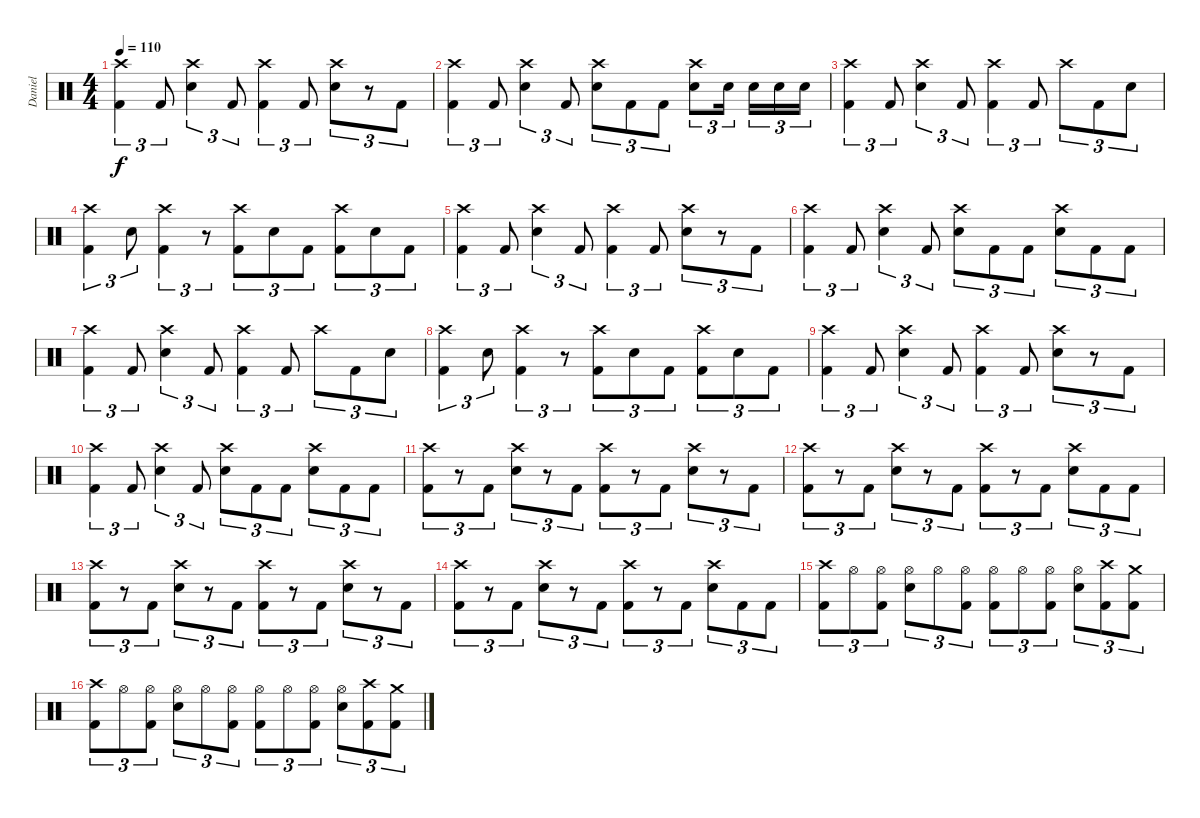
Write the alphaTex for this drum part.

\track ("Daniel" "Daniel") {instrument percussion}
\staff {score}
\articulation defaults
\ts (4 4)
\tempo 110
\clef neutral
\ks c
("Crash high (hit)" "Kick (hit) 2").4{tu (3 2) dy f} "Kick (hit) 2".8{tu (3 2)} ("Crash high (hit)" "Electric Snare (hit)").4{tu (3 2)} "Kick (hit) 2".8{tu (3 2)} ("Crash high (hit)" "Kick (hit) 2").4{tu (3 2)} "Kick (hit) 2".8{tu (3 2)} ("Crash high (hit)" "Electric Snare (hit)").8{tu (3 2)} r.8{tu (3 2)} "Kick (hit) 2".8{tu (3 2)} |
("Crash high (hit)" "Kick (hit) 2").4{tu (3 2)} "Kick (hit) 2".8{tu (3 2)} ("Crash high (hit)" "Electric Snare (hit)").4{tu (3 2)} "Kick (hit) 2".8{tu (3 2)} ("Crash high (hit)" "Electric Snare (hit)").8{tu (3 2)} "Kick (hit) 2".8{tu (3 2)} "Kick (hit) 2".8{tu (3 2)} ("Crash high (hit)" "Electric Snare (hit)").8{tu (3 2)} "Electric Snare (hit)".16{tu (3 2)} "Electric Snare (hit)".16{tu (3 2)} "Electric Snare (hit)".16{tu (3 2)} "Electric Snare (hit)".16{tu (3 2)} |
("Crash high (hit)" "Kick (hit) 2").4{tu (3 2)} "Kick (hit) 2".8{tu (3 2)} ("Crash high (hit)" "Electric Snare (hit)").4{tu (3 2)} "Kick (hit) 2".8{tu (3 2)} ("Crash high (hit)" "Kick (hit) 2").4{tu (3 2)} "Kick (hit) 2".8{tu (3 2)} "Crash high (hit)".8{tu (3 2)} "Kick (hit) 2".8{tu (3 2)} "Electric Snare (hit)".8{tu (3 2)} |
("Crash high (hit)" "Kick (hit) 2").4{tu (3 2)} "Electric Snare (hit)".8{tu (3 2)} ("Crash high (hit)" "Kick (hit) 2").4{tu (3 2)} r.8{tu (3 2)} ("Crash high (hit)" "Kick (hit) 2").8{tu (3 2)} "Electric Snare (hit)".8{tu (3 2)} "Kick (hit) 2".8{tu (3 2)} ("Crash high (hit)" "Kick (hit) 2").8{tu (3 2)} "Electric Snare (hit)".8{tu (3 2)} "Kick (hit) 2".8{tu (3 2)} |
("Crash high (hit)" "Kick (hit) 2").4{tu (3 2)} "Kick (hit) 2".8{tu (3 2)} ("Crash high (hit)" "Electric Snare (hit)").4{tu (3 2)} "Kick (hit) 2".8{tu (3 2)} ("Crash high (hit)" "Kick (hit) 2").4{tu (3 2)} "Kick (hit) 2".8{tu (3 2)} ("Crash high (hit)" "Electric Snare (hit)").8{tu (3 2)} r.8{tu (3 2)} "Kick (hit) 2".8{tu (3 2)} |
("Crash high (hit)" "Kick (hit) 2").4{tu (3 2)} "Kick (hit) 2".8{tu (3 2)} ("Crash high (hit)" "Electric Snare (hit)").4{tu (3 2)} "Kick (hit) 2".8{tu (3 2)} ("Crash high (hit)" "Electric Snare (hit)").8{tu (3 2)} "Kick (hit) 2".8{tu (3 2)} "Kick (hit) 2".8{tu (3 2)} ("Crash high (hit)" "Electric Snare (hit)").8{tu (3 2)} "Kick (hit) 2".8{tu (3 2)} "Kick (hit) 2".8{tu (3 2)} |
("Crash high (hit)" "Kick (hit) 2").4{tu (3 2)} "Kick (hit) 2".8{tu (3 2)} ("Crash high (hit)" "Electric Snare (hit)").4{tu (3 2)} "Kick (hit) 2".8{tu (3 2)} ("Crash high (hit)" "Kick (hit) 2").4{tu (3 2)} "Kick (hit) 2".8{tu (3 2)} "Crash high (hit)".8{tu (3 2)} "Kick (hit) 2".8{tu (3 2)} "Electric Snare (hit)".8{tu (3 2)} |
("Crash high (hit)" "Kick (hit) 2").4{tu (3 2)} "Electric Snare (hit)".8{tu (3 2)} ("Crash high (hit)" "Kick (hit) 2").4{tu (3 2)} r.8{tu (3 2)} ("Crash high (hit)" "Kick (hit) 2").8{tu (3 2)} "Electric Snare (hit)".8{tu (3 2)} "Kick (hit) 2".8{tu (3 2)} ("Crash high (hit)" "Kick (hit) 2").8{tu (3 2)} "Electric Snare (hit)".8{tu (3 2)} "Kick (hit) 2".8{tu (3 2)} |
("Crash high (hit)" "Kick (hit) 2").4{tu (3 2)} "Kick (hit) 2".8{tu (3 2)} ("Crash high (hit)" "Electric Snare (hit)").4{tu (3 2)} "Kick (hit) 2".8{tu (3 2)} ("Crash high (hit)" "Kick (hit) 2").4{tu (3 2)} "Kick (hit) 2".8{tu (3 2)} ("Crash high (hit)" "Electric Snare (hit)").8{tu (3 2)} r.8{tu (3 2)} "Kick (hit) 2".8{tu (3 2)} |
("Crash high (hit)" "Kick (hit) 2").4{tu (3 2)} "Kick (hit) 2".8{tu (3 2)} ("Crash high (hit)" "Electric Snare (hit)").4{tu (3 2)} "Kick (hit) 2".8{tu (3 2)} ("Crash high (hit)" "Electric Snare (hit)").8{tu (3 2)} "Kick (hit) 2".8{tu (3 2)} "Kick (hit) 2".8{tu (3 2)} ("Crash high (hit)" "Electric Snare (hit)").8{tu (3 2)} "Kick (hit) 2".8{tu (3 2)} "Kick (hit) 2".8{tu (3 2)} |
("Crash high (hit)" "Kick (hit) 2").8{tu (3 2)} r.8{tu (3 2)} "Kick (hit) 2".8{tu (3 2)} ("Crash high (hit)" "Electric Snare (hit)").8{tu (3 2)} r.8{tu (3 2)} "Kick (hit) 2".8{tu (3 2)} ("Crash high (hit)" "Kick (hit) 2").8{tu (3 2)} r.8{tu (3 2)} "Kick (hit) 2".8{tu (3 2)} ("Crash high (hit)" "Electric Snare (hit)").8{tu (3 2)} r.8{tu (3 2)} "Kick (hit) 2".8{tu (3 2)} |
("Crash high (hit)" "Kick (hit) 2").8{tu (3 2)} r.8{tu (3 2)} "Kick (hit) 2".8{tu (3 2)} ("Crash high (hit)" "Electric Snare (hit)").8{tu (3 2)} r.8{tu (3 2)} "Kick (hit) 2".8{tu (3 2)} ("Crash high (hit)" "Kick (hit) 2").8{tu (3 2)} r.8{tu (3 2)} "Kick (hit) 2".8{tu (3 2)} ("Crash high (hit)" "Electric Snare (hit)").8{tu (3 2)} "Kick (hit) 2".8{tu (3 2)} "Kick (hit) 2".8{tu (3 2)} |
("Crash high (hit)" "Kick (hit) 2").8{tu (3 2)} r.8{tu (3 2)} "Kick (hit) 2".8{tu (3 2)} ("Crash high (hit)" "Electric Snare (hit)").8{tu (3 2)} r.8{tu (3 2)} "Kick (hit) 2".8{tu (3 2)} ("Crash high (hit)" "Kick (hit) 2").8{tu (3 2)} r.8{tu (3 2)} "Kick (hit) 2".8{tu (3 2)} ("Crash high (hit)" "Electric Snare (hit)").8{tu (3 2)} r.8{tu (3 2)} "Kick (hit) 2".8{tu (3 2)} |
("Crash high (hit)" "Kick (hit) 2").8{tu (3 2)} r.8{tu (3 2)} "Kick (hit) 2".8{tu (3 2)} ("Crash high (hit)" "Electric Snare (hit)").8{tu (3 2)} r.8{tu (3 2)} "Kick (hit) 2".8{tu (3 2)} ("Crash high (hit)" "Kick (hit) 2").8{tu (3 2)} r.8{tu (3 2)} "Kick (hit) 2".8{tu (3 2)} ("Crash high (hit)" "Electric Snare (hit)").8{tu (3 2)} "Kick (hit) 2".8{tu (3 2)} "Kick (hit) 2".8{tu (3 2)} |
("Crash high (hit)" "Kick (hit) 2").8{tu (3 2)} "Hi-Hat (open)".8{tu (3 2)} ("Hi-Hat (open)" "Kick (hit) 2").8{tu (3 2)} ("Hi-Hat (open)" "Electric Snare (hit)").8{tu (3 2)} "Hi-Hat (open)".8{tu (3 2)} ("Hi-Hat (open)" "Kick (hit) 2").8{tu (3 2)} ("Hi-Hat (open)" "Kick (hit) 2").8{tu (3 2)} "Hi-Hat (open)".8{tu (3 2)} ("Hi-Hat (open)" "Kick (hit) 2").8{tu (3 2)} ("Hi-Hat (open)" "Electric Snare (hit)").8{tu (3 2)} ("Crash high (hit)" "Kick (hit) 2").8{tu (3 2)} ("Crash medium (hit)" "Kick (hit) 2").8{tu (3 2)} |
("Crash high (hit)" "Kick (hit) 2").8{tu (3 2)} "Hi-Hat (open)".8{tu (3 2)} ("Hi-Hat (open)" "Kick (hit) 2").8{tu (3 2)} ("Hi-Hat (open)" "Electric Snare (hit)").8{tu (3 2)} "Hi-Hat (open)".8{tu (3 2)} ("Hi-Hat (open)" "Kick (hit) 2").8{tu (3 2)} ("Hi-Hat (open)" "Kick (hit) 2").8{tu (3 2)} "Hi-Hat (open)".8{tu (3 2)} ("Hi-Hat (open)" "Kick (hit) 2").8{tu (3 2)} ("Hi-Hat (open)" "Electric Snare (hit)").8{tu (3 2)} ("Crash high (hit)" "Kick (hit) 2").8{tu (3 2)} ("Crash medium (hit)" "Kick (hit) 2").8{tu (3 2)}
